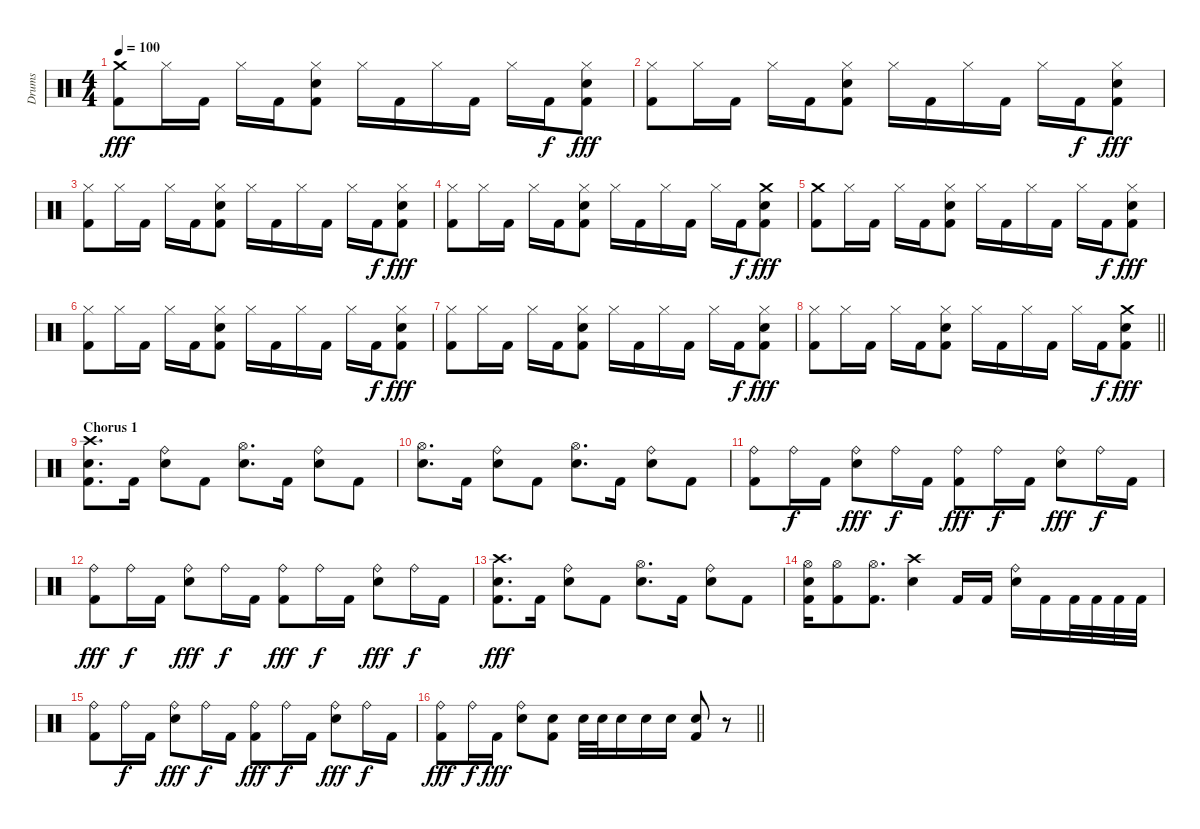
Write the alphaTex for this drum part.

\track ("Drums" "Drums") {instrument percussion}
\staff {score}
\articulation defaults
\ts (4 4)
\tempo 100
\clef neutral
\ks c
("Crash medium (hit)" "Kick (hit) 2").8{dy fff} "Hi-Hat (closed)".16 "Kick (hit) 2".16 "Hi-Hat (closed)".16 "Kick (hit) 2".16 ("Hi-Hat (closed)" "Electric Snare (hit)" "Kick (hit) 2").8 "Hi-Hat (closed)".16 "Kick (hit) 2".16 "Hi-Hat (closed)".16 "Kick (hit) 2".16 "Hi-Hat (closed)".16 "Kick (hit) 2".16{dy f} ("Hi-Hat (closed)" "Electric Snare (hit)" "Kick (hit) 2").8{dy fff} |
("Hi-Hat (closed)" "Kick (hit) 2").8 "Hi-Hat (closed)".16 "Kick (hit) 2".16 "Hi-Hat (closed)".16 "Kick (hit) 2".16 ("Hi-Hat (closed)" "Electric Snare (hit)" "Kick (hit) 2").8 "Hi-Hat (closed)".16 "Kick (hit) 2".16 "Hi-Hat (closed)".16 "Kick (hit) 2".16 "Hi-Hat (closed)".16 "Kick (hit) 2".16{dy f} ("Hi-Hat (closed)" "Electric Snare (hit)" "Kick (hit) 2").8{dy fff} |
("Hi-Hat (closed)" "Kick (hit) 2").8 "Hi-Hat (closed)".16 "Kick (hit) 2".16 "Hi-Hat (closed)".16 "Kick (hit) 2".16 ("Hi-Hat (closed)" "Electric Snare (hit)" "Kick (hit) 2").8 "Hi-Hat (closed)".16 "Kick (hit) 2".16 "Hi-Hat (closed)".16 "Kick (hit) 2".16 "Hi-Hat (closed)".16 "Kick (hit) 2".16{dy f} ("Hi-Hat (closed)" "Electric Snare (hit)" "Kick (hit) 2").8{dy fff} |
("Hi-Hat (closed)" "Kick (hit) 2").8 "Hi-Hat (closed)".16 "Kick (hit) 2".16 "Hi-Hat (closed)".16 "Kick (hit) 2".16 ("Hi-Hat (closed)" "Electric Snare (hit)" "Kick (hit) 2").8 "Hi-Hat (closed)".16 "Kick (hit) 2".16 "Hi-Hat (closed)".16 "Kick (hit) 2".16 "Hi-Hat (closed)".16 "Kick (hit) 2".16{dy f} ("Crash medium (hit)" "Electric Snare (hit)" "Kick (hit) 2").8{dy fff} |
("Crash medium (hit)" "Kick (hit) 2").8 "Hi-Hat (closed)".16 "Kick (hit) 2".16 "Hi-Hat (closed)".16 "Kick (hit) 2".16 ("Hi-Hat (closed)" "Electric Snare (hit)" "Kick (hit) 2").8 "Hi-Hat (closed)".16 "Kick (hit) 2".16 "Hi-Hat (closed)".16 "Kick (hit) 2".16 "Hi-Hat (closed)".16 "Kick (hit) 2".16{dy f} ("Hi-Hat (closed)" "Electric Snare (hit)" "Kick (hit) 2").8{dy fff} |
("Hi-Hat (closed)" "Kick (hit) 2").8 "Hi-Hat (closed)".16 "Kick (hit) 2".16 "Hi-Hat (closed)".16 "Kick (hit) 2".16 ("Hi-Hat (closed)" "Electric Snare (hit)" "Kick (hit) 2").8 "Hi-Hat (closed)".16 "Kick (hit) 2".16 "Hi-Hat (closed)".16 "Kick (hit) 2".16 "Hi-Hat (closed)".16 "Kick (hit) 2".16{dy f} ("Hi-Hat (closed)" "Electric Snare (hit)" "Kick (hit) 2").8{dy fff} |
("Hi-Hat (closed)" "Kick (hit) 2").8 "Hi-Hat (closed)".16 "Kick (hit) 2".16 "Hi-Hat (closed)".16 "Kick (hit) 2".16 ("Hi-Hat (closed)" "Electric Snare (hit)" "Kick (hit) 2").8 "Hi-Hat (closed)".16 "Kick (hit) 2".16 "Hi-Hat (closed)".16 "Kick (hit) 2".16 "Hi-Hat (closed)".16 "Kick (hit) 2".16{dy f} ("Hi-Hat (closed)" "Electric Snare (hit)" "Kick (hit) 2").8{dy fff} |
\barLineRight lightlight
("Hi-Hat (closed)" "Kick (hit) 2").8 "Hi-Hat (closed)".16 "Kick (hit) 2".16 "Hi-Hat (closed)".16 "Kick (hit) 2".16 ("Hi-Hat (closed)" "Electric Snare (hit)" "Kick (hit) 2").8 "Hi-Hat (closed)".16 "Kick (hit) 2".16 "Hi-Hat (closed)".16 "Kick (hit) 2".16 "Hi-Hat (closed)".16 "Kick (hit) 2".16{dy f} ("Crash medium (hit)" "Electric Snare (hit)" "Kick (hit) 2").8{dy fff} |
\section ("" "Chorus 1")
("Crash high (hit)" "Electric Snare (hit)" "Kick (hit) 2").8{d} "Kick (hit) 2".16 ("Ride (bell)" "Electric Snare (hit)").8 "Kick (hit) 2".8 ("Hi-Hat (open)" "Electric Snare (hit)").8{d} "Kick (hit) 2".16 ("Ride (bell)" "Electric Snare (hit)").8 "Kick (hit) 2".8 |
("Hi-Hat (open)" "Electric Snare (hit)").8{d} "Kick (hit) 2".16 ("Ride (bell)" "Electric Snare (hit)").8 "Kick (hit) 2".8 ("Hi-Hat (open)" "Electric Snare (hit)").8{d} "Kick (hit) 2".16 ("Ride (bell)" "Electric Snare (hit)").8 "Kick (hit) 2".8 |
("Ride (bell)" "Kick (hit) 2").8 "Ride (bell)".16{dy f} "Kick (hit) 2".16 ("Ride (bell)" "Electric Snare (hit)").8{dy fff} "Ride (bell)".16{dy f} "Kick (hit) 2".16 ("Ride (bell)" "Kick (hit) 2").8{dy fff} "Ride (bell)".16{dy f} "Kick (hit) 2".16 ("Ride (bell)" "Electric Snare (hit)").8{dy fff} "Ride (bell)".16{dy f} "Kick (hit) 2".16 |
("Ride (bell)" "Kick (hit) 2").8{dy fff} "Ride (bell)".16{dy f} "Kick (hit) 2".16 ("Ride (bell)" "Electric Snare (hit)").8{dy fff} "Ride (bell)".16{dy f} "Kick (hit) 2".16 ("Ride (bell)" "Kick (hit) 2").8{dy fff} "Ride (bell)".16{dy f} "Kick (hit) 2".16 ("Ride (bell)" "Electric Snare (hit)").8{dy fff} "Ride (bell)".16{dy f} "Kick (hit) 2".16 |
("Crash high (hit)" "Electric Snare (hit)" "Kick (hit) 2").8{d dy fff} "Kick (hit) 2".16 ("Ride (bell)" "Electric Snare (hit)").8 "Kick (hit) 2".8 ("Hi-Hat (open)" "Electric Snare (hit)").8{d} "Kick (hit) 2".16 ("Ride (bell)" "Electric Snare (hit)").8 "Kick (hit) 2".8 |
("Hi-Hat (open)" "Electric Snare (hit)" "Kick (hit) 2").16 ("Hi-Hat (open)" "Kick (hit) 2").8 ("Hi-Hat (open)" "Kick (hit) 2").8{d} ("Crash high (hit)" "Electric Snare (hit)").4 "Kick (hit) 2".16 "Kick (hit) 2".16 ("Ride (bell)" "Electric Snare (hit)").16 "Kick (hit) 2".16 "Kick (hit) 2".32 "Kick (hit) 2".32 "Kick (hit) 2".32 "Kick (hit) 2".32 |
("Ride (bell)" "Kick (hit) 2").8 "Ride (bell)".16{dy f} "Kick (hit) 2".16 ("Ride (bell)" "Electric Snare (hit)").8{dy fff} "Ride (bell)".16{dy f} "Kick (hit) 2".16 ("Ride (bell)" "Kick (hit) 2").8{dy fff} "Ride (bell)".16{dy f} "Kick (hit) 2".16 ("Ride (bell)" "Electric Snare (hit)").8{dy fff} "Ride (bell)".16{dy f} "Kick (hit) 2".16 |
\barLineRight lightlight
("Ride (bell)" "Kick (hit) 2").8{dy fff} "Ride (bell)".16{dy f} "Kick (hit) 2".16{dy fff} ("Ride (bell)" "Electric Snare (hit)").8 ("Electric Snare (hit)" "Kick (hit) 2").8 "Electric Snare (hit)".32 "Electric Snare (hit)".32 "Electric Snare (hit)".16 "Electric Snare (hit)".16 "Electric Snare (hit)".16 ("Electric Snare (hit)" "Kick (hit) 2").8 r.8
